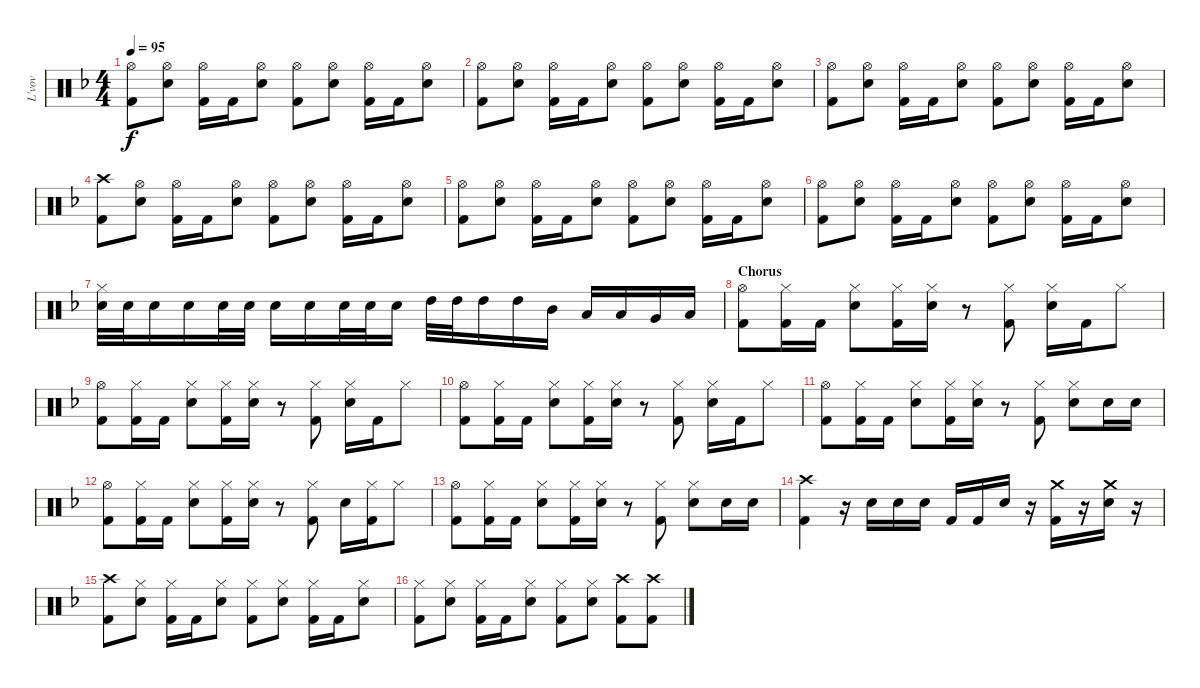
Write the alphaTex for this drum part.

\track ("L'vov" "L'vov") {instrument percussion}
\staff {score}
\articulation defaults
\ts (4 4)
\tempo 95
\clef neutral
\ks f
("Kick (hit) 2" "Hi-Hat (open)").8{dy f} ("Snare (hit) 2" "Hi-Hat (open)").8 ("Kick (hit) 2" "Hi-Hat (open)").16 "Kick (hit) 2".16 ("Snare (hit) 2" "Hi-Hat (open)").8 ("Kick (hit) 2" "Hi-Hat (open)").8 ("Snare (hit) 2" "Hi-Hat (open)").8 ("Kick (hit) 2" "Hi-Hat (open)").16 "Kick (hit) 2".16 ("Snare (hit) 2" "Hi-Hat (open)").8 |
("Kick (hit) 2" "Hi-Hat (open)").8 ("Snare (hit) 2" "Hi-Hat (open)").8 ("Kick (hit) 2" "Hi-Hat (open)").16 "Kick (hit) 2".16 ("Snare (hit) 2" "Hi-Hat (open)").8 ("Kick (hit) 2" "Hi-Hat (open)").8 ("Snare (hit) 2" "Hi-Hat (open)").8 ("Kick (hit) 2" "Hi-Hat (open)").16 "Kick (hit) 2".16 ("Snare (hit) 2" "Hi-Hat (open)").8 |
("Kick (hit) 2" "Hi-Hat (open)").8 ("Snare (hit) 2" "Hi-Hat (open)").8 ("Kick (hit) 2" "Hi-Hat (open)").16 "Kick (hit) 2".16 ("Snare (hit) 2" "Hi-Hat (open)").8 ("Kick (hit) 2" "Hi-Hat (open)").8 ("Snare (hit) 2" "Hi-Hat (open)").8 ("Kick (hit) 2" "Hi-Hat (open)").16 "Kick (hit) 2".16 ("Snare (hit) 2" "Hi-Hat (open)").8 |
("Kick (hit) 2" "Crash high (hit)").8 ("Snare (hit) 2" "Hi-Hat (open)").8 ("Kick (hit) 2" "Hi-Hat (open)").16 "Kick (hit) 2".16 ("Snare (hit) 2" "Hi-Hat (open)").8 ("Kick (hit) 2" "Hi-Hat (open)").8 ("Snare (hit) 2" "Hi-Hat (open)").8 ("Kick (hit) 2" "Hi-Hat (open)").16 "Kick (hit) 2".16 ("Snare (hit) 2" "Hi-Hat (open)").8 |
("Kick (hit) 2" "Hi-Hat (open)").8 ("Snare (hit) 2" "Hi-Hat (open)").8 ("Kick (hit) 2" "Hi-Hat (open)").16 "Kick (hit) 2".16 ("Snare (hit) 2" "Hi-Hat (open)").8 ("Kick (hit) 2" "Hi-Hat (open)").8 ("Snare (hit) 2" "Hi-Hat (open)").8 ("Kick (hit) 2" "Hi-Hat (open)").16 "Kick (hit) 2".16 ("Snare (hit) 2" "Hi-Hat (open)").8 |
("Kick (hit) 2" "Hi-Hat (open)").8 ("Snare (hit) 2" "Hi-Hat (open)").8 ("Kick (hit) 2" "Hi-Hat (open)").16 "Kick (hit) 2".16 ("Snare (hit) 2" "Hi-Hat (open)").8 ("Kick (hit) 2" "Hi-Hat (open)").8 ("Snare (hit) 2" "Hi-Hat (open)").8 ("Kick (hit) 2" "Hi-Hat (open)").16 "Kick (hit) 2".16 ("Snare (hit) 2" "Hi-Hat (open)").8 |
("Snare (hit) 2" "Hi-Hat (closed)").32 "Snare (hit) 2".32 "Snare (hit) 2".16 "Snare (hit) 2".16 "Snare (hit) 2".32 "Snare (hit) 2".32 "Snare (hit) 2".16 "Snare (hit) 2".16 "Snare (hit) 2".32 "Snare (hit) 2".32 "Snare (hit) 2".16 "High Tom (hit)".32 "High Tom (hit)".32 "High Tom (hit)".16 "High Tom (hit)".16 "Mid Tom (hit)".16 "Low Tom (hit)".16 "Low Tom (hit)".16 "Very Low Tom (hit)".16 "Low Floor Tom (hit)".16 |
\section ("" "Chorus")
("Kick (hit) 2" "Hi-Hat (open)").8 ("Kick (hit) 2" "Hi-Hat (closed)").16 "Kick (hit) 2".16 ("Snare (hit) 2" "Hi-Hat (closed)").8 ("Kick (hit) 2" "Hi-Hat (closed)").16 ("Snare (hit) 2" "Hi-Hat (closed)").16 r.8 ("Kick (hit) 2" "Hi-Hat (closed)").8 ("Snare (hit) 2" "Hi-Hat (closed)").16 "Kick (hit) 2".16 "Hi-Hat (closed)".8 |
("Kick (hit) 2" "Hi-Hat (open)").8 ("Kick (hit) 2" "Hi-Hat (closed)").16 "Kick (hit) 2".16 ("Snare (hit) 2" "Hi-Hat (closed)").8 ("Kick (hit) 2" "Hi-Hat (closed)").16 ("Snare (hit) 2" "Hi-Hat (closed)").16 r.8 ("Kick (hit) 2" "Hi-Hat (closed)").8 ("Snare (hit) 2" "Hi-Hat (closed)").16 "Kick (hit) 2".16 "Hi-Hat (closed)".8 |
("Kick (hit) 2" "Hi-Hat (open)").8 ("Kick (hit) 2" "Hi-Hat (closed)").16 "Kick (hit) 2".16 ("Snare (hit) 2" "Hi-Hat (closed)").8 ("Kick (hit) 2" "Hi-Hat (closed)").16 ("Snare (hit) 2" "Hi-Hat (closed)").16 r.8 ("Kick (hit) 2" "Hi-Hat (closed)").8 ("Snare (hit) 2" "Hi-Hat (closed)").16 "Kick (hit) 2".16 "Hi-Hat (closed)".8 |
("Kick (hit) 2" "Hi-Hat (open)").8 ("Kick (hit) 2" "Hi-Hat (closed)").16 "Kick (hit) 2".16 ("Snare (hit) 2" "Hi-Hat (closed)").8 ("Kick (hit) 2" "Hi-Hat (closed)").16 ("Snare (hit) 2" "Hi-Hat (closed)").16 r.8 ("Kick (hit) 2" "Hi-Hat (closed)").8 ("Snare (hit) 2" "Hi-Hat (closed)").8 "Snare (hit) 2".16 "Snare (hit) 2".16 |
("Kick (hit) 2" "Hi-Hat (open)").8 ("Kick (hit) 2" "Hi-Hat (closed)").16 "Kick (hit) 2".16 ("Snare (hit) 2" "Hi-Hat (closed)").8 ("Kick (hit) 2" "Hi-Hat (closed)").16 ("Snare (hit) 2" "Hi-Hat (closed)").16 r.8 ("Kick (hit) 2" "Hi-Hat (closed)").8 "Snare (hit) 2".16 ("Kick (hit) 2" "Hi-Hat (closed)").16 "Hi-Hat (closed)".8 |
("Kick (hit) 2" "Hi-Hat (open)").8 ("Kick (hit) 2" "Hi-Hat (closed)").16 "Kick (hit) 2".16 ("Snare (hit) 2" "Hi-Hat (closed)").8 ("Kick (hit) 2" "Hi-Hat (closed)").16 ("Snare (hit) 2" "Hi-Hat (closed)").16 r.8 ("Kick (hit) 2" "Hi-Hat (closed)").8 ("Snare (hit) 2" "Hi-Hat (closed)").8 "Snare (hit) 2".16 "Snare (hit) 2".16 |
("Kick (hit) 2" "Crash high (hit)").4 r.16 "Snare (hit) 2".16 "Snare (hit) 2".16 "Snare (hit) 2".16 "Kick (hit) 2".16 "Kick (hit) 2".16 "Snare (hit) 2".16 r.16 ("Kick (hit) 2" "Crash medium (hit)").16 r.16 ("Snare (hit) 2" "Crash medium (hit)").16 r.16 |
("Kick (hit) 2" "Crash high (hit)").8 ("Snare (hit) 2" "Hi-Hat (closed)").8 ("Kick (hit) 2" "Hi-Hat (closed)").16 "Kick (hit) 2".16 ("Snare (hit) 2" "Hi-Hat (closed)").8 ("Kick (hit) 2" "Hi-Hat (closed)").8 ("Snare (hit) 2" "Hi-Hat (closed)").8 ("Kick (hit) 2" "Hi-Hat (closed)").16 "Kick (hit) 2".16 ("Snare (hit) 2" "Hi-Hat (closed)").8 |
("Kick (hit) 2" "Hi-Hat (closed)").8 ("Snare (hit) 2" "Hi-Hat (closed)").8 ("Kick (hit) 2" "Hi-Hat (closed)").16 "Kick (hit) 2".16 ("Snare (hit) 2" "Hi-Hat (closed)").8 ("Kick (hit) 2" "Hi-Hat (closed)").8 ("Snare (hit) 2" "Hi-Hat (closed)").8 ("Kick (hit) 2" "Crash high (hit)").8 ("Kick (hit) 2" "Crash high (hit)").8
